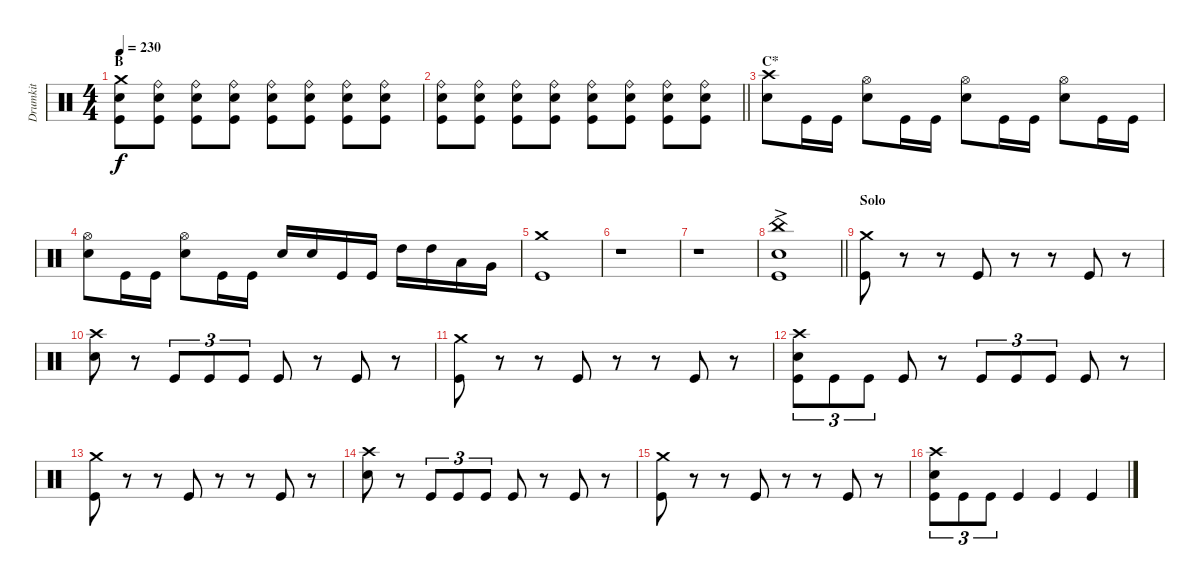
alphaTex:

\track ("Drumkit" "Drumkit") {instrument percussion}
\staff {score}
\articulation defaults
\ts (4 4)
\section ("" "B")
\tempo 230
\clef neutral
\ks c
("Crash medium (hit)" "Snare (hit) 2" "Kick (hit)").8{dy f} ("Ride (bell)" "Snare (hit) 2" "Kick (hit)").8 ("Ride (bell)" "Snare (hit) 2" "Kick (hit)").8 ("Ride (bell)" "Snare (hit) 2" "Kick (hit)").8 ("Ride (bell)" "Snare (hit) 2" "Kick (hit)").8 ("Ride (bell)" "Snare (hit) 2" "Kick (hit)").8 ("Ride (bell)" "Snare (hit) 2" "Kick (hit)").8 ("Ride (bell)" "Snare (hit) 2" "Kick (hit)").8 |
\barLineRight lightlight
("Ride (bell)" "Snare (hit) 2" "Kick (hit)").8 ("Ride (bell)" "Snare (hit) 2" "Kick (hit)").8 ("Ride (bell)" "Snare (hit) 2" "Kick (hit)").8 ("Ride (bell)" "Snare (hit) 2" "Kick (hit)").8 ("Ride (bell)" "Snare (hit) 2" "Kick (hit)").8 ("Ride (bell)" "Snare (hit) 2" "Kick (hit)").8 ("Ride (bell)" "Snare (hit) 2" "Kick (hit)").8 ("Ride (bell)" "Snare (hit) 2" "Kick (hit)").8 |
\section ("" "C*")
("Crash high (hit)" "Snare (hit) 2").8 "Kick (hit)".16 "Kick (hit)".16 ("Hi-Hat (open)" "Snare (hit) 2").8 "Kick (hit)".16 "Kick (hit)".16 ("Hi-Hat (open)" "Snare (hit) 2").8 "Kick (hit)".16 "Kick (hit)".16 ("Hi-Hat (open)" "Snare (hit) 2").8 "Kick (hit)".16 "Kick (hit)".16 |
("Hi-Hat (open)" "Snare (hit) 2").8 "Kick (hit)".16 "Kick (hit)".16 ("Hi-Hat (open)" "Snare (hit) 2").8 "Kick (hit)".16 "Kick (hit)".16 "Snare (hit) 2".16 "Snare (hit) 2".16 "Kick (hit)".16 "Kick (hit)".16 "High Tom (hit)".16 "High Tom (hit)".16 "Low Tom (hit)".16 "Very Low Tom (hit)".16 |
("Crash medium (hit)" "Kick (hit)").1 |
r.1 |
r.1 |
\barLineRight lightlight
("China (hit)" "Snare (hit) 2"{ac} "Kick (hit)").1 |
\section ("" "Solo")
("Crash medium (hit)" "Kick (hit)").8 r.8 r.8 "Kick (hit)".8 r.8 r.8 "Kick (hit)".8 r.8 |
("Crash high (hit)" "Snare (hit) 2").8 r.8 "Kick (hit)".8{tu (3 2)} "Kick (hit)".8{tu (3 2)} "Kick (hit)".8{tu (3 2)} "Kick (hit)".8 r.8 "Kick (hit)".8 r.8 |
("Crash medium (hit)" "Kick (hit)").8 r.8 r.8 "Kick (hit)".8 r.8 r.8 "Kick (hit)".8 r.8 |
("Crash high (hit)" "Snare (hit) 2" "Kick (hit)").8{tu (3 2)} "Kick (hit)".8{tu (3 2)} "Kick (hit)".8{tu (3 2)} "Kick (hit)".8 r.8 "Kick (hit)".8{tu (3 2)} "Kick (hit)".8{tu (3 2)} "Kick (hit)".8{tu (3 2)} "Kick (hit)".8 r.8 |
("Crash medium (hit)" "Kick (hit)").8 r.8 r.8 "Kick (hit)".8 r.8 r.8 "Kick (hit)".8 r.8 |
("Crash high (hit)" "Snare (hit) 2").8 r.8 "Kick (hit)".8{tu (3 2)} "Kick (hit)".8{tu (3 2)} "Kick (hit)".8{tu (3 2)} "Kick (hit)".8 r.8 "Kick (hit)".8 r.8 |
("Crash medium (hit)" "Kick (hit)").8 r.8 r.8 "Kick (hit)".8 r.8 r.8 "Kick (hit)".8 r.8 |
("Crash high (hit)" "Snare (hit) 2" "Kick (hit)").8{tu (3 2)} "Kick (hit)".8{tu (3 2)} "Kick (hit)".8{tu (3 2)} "Kick (hit)".4 "Kick (hit)".4 "Kick (hit)".4
